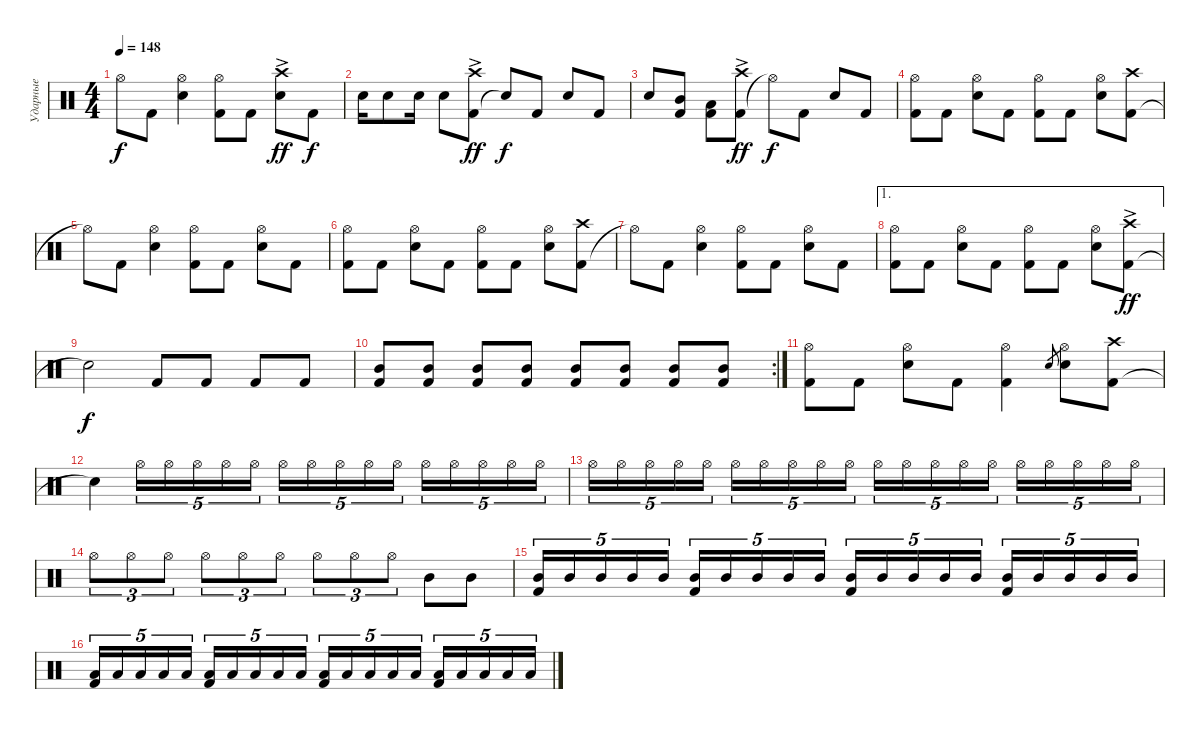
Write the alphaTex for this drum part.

\track ("Ударные" "Ударные") {instrument percussion}
\staff {score}
\articulation defaults
\ts (4 4)
\tempo 148
\clef neutral
\ks c "Hi-Hat (open)"{t}.8{dy f} "Kick (hit) 2".8
("Snare (hit) 2" "Hi-Hat (open)").4 ("Kick (hit) 2" "Hi-Hat (open)").8 "Kick (hit) 2".8 ("Snare (hit) 2" "Crash high (hit)"{ac}).8{dy ff} "Kick (hit) 2".8{dy f} |
"Snare (hit) 2".16 "Electric Snare (hit)".8 "Snare (hit) 2".16 "Electric Snare (hit)".8 ("Kick (hit) 2" "Crash high (hit)"{ac}).8{dy ff} "Snare (hit)"{t}.8{dy f} "Kick (hit) 2".8 "Snare (hit) 2".8 "Kick (hit) 2".8 |
"Snare (hit) 2".8 ("Kick (hit) 2" "Mid Tom (hit)").8 ("Kick (hit) 2" "Low Tom (hit)").8 ("Kick (hit) 2" "Crash high (hit)"{ac}).8{dy ff} "Hi-Hat (open)"{t}.8{dy f} "Kick (hit) 2".8 "Snare (hit) 2".8 "Kick (hit) 2".8 |
("Kick (hit) 2" "Hi-Hat (open)").8 "Kick (hit) 2".8 ("Snare (hit) 2" "Hi-Hat (open)").8 "Kick (hit) 2".8 ("Kick (hit) 2" "Hi-Hat (open)").8 "Kick (hit) 2".8 ("Snare (hit) 2" "Hi-Hat (open)").8 ("Kick (hit) 2" "Crash high (hit)").8 |
"Hi-Hat (open)"{t}.8 "Kick (hit) 2".8 ("Snare (hit) 2" "Hi-Hat (open)").4 ("Kick (hit) 2" "Hi-Hat (open)").8 "Kick (hit) 2".8 ("Snare (hit) 2" "Hi-Hat (open)").8 "Kick (hit) 2".8 |
("Kick (hit) 2" "Hi-Hat (open)").8 "Kick (hit) 2".8 ("Snare (hit) 2" "Hi-Hat (open)").8 "Kick (hit) 2".8 ("Kick (hit) 2" "Hi-Hat (open)").8 "Kick (hit) 2".8 ("Snare (hit) 2" "Hi-Hat (open)").8 ("Kick (hit) 2" "Crash high (hit)").8 |
"Hi-Hat (open)"{t}.8 "Kick (hit) 2".8 ("Snare (hit) 2" "Hi-Hat (open)").4 ("Kick (hit) 2" "Hi-Hat (open)").8 "Kick (hit) 2".8 ("Snare (hit) 2" "Hi-Hat (open)").8 "Kick (hit) 2".8 |
\ae 1
("Kick (hit) 2" "Hi-Hat (open)").8 "Kick (hit) 2".8 ("Snare (hit) 2" "Hi-Hat (open)").8 "Kick (hit) 2".8 ("Kick (hit) 2" "Hi-Hat (open)").8 "Kick (hit) 2".8 ("Snare (hit) 2" "Hi-Hat (open)").8 ("Kick (hit) 2" "Crash high (hit)"{ac}).8{dy ff} |
"Snare (hit)"{t}.2{dy f} "Kick (hit) 2".8 "Kick (hit) 2".8 "Kick (hit) 2".8 "Kick (hit) 2".8 |
\rc 2
("Kick (hit) 2" "Mid Tom (hit)").8 ("Kick (hit) 2" "Mid Tom (hit)").8 ("Kick (hit) 2" "Mid Tom (hit)").8 ("Kick (hit) 2" "Mid Tom (hit)").8 ("Kick (hit) 2" "Mid Tom (hit)").8 ("Kick (hit) 2" "Mid Tom (hit)").8 ("Kick (hit) 2" "Mid Tom (hit)").8 ("Kick (hit) 2" "Mid Tom (hit)").8 |
("Kick (hit) 2" "Hi-Hat (open)").8 "Kick (hit) 2".8 ("Snare (hit) 2" "Hi-Hat (open)").8 "Kick (hit) 2".8 ("Kick (hit) 2" "Hi-Hat (open)").4 "Snare (hit) 2".8{gr} ("Snare (hit) 2" "Hi-Hat (open)").8 ("Kick (hit) 2" "Crash high (hit)").8 |
"Snare (hit)"{t}.4 "Hi-Hat (open)".16{tu (5 4)} "Hi-Hat (open)".16{tu (5 4)} "Hi-Hat (open)".16{tu (5 4)} "Hi-Hat (open)".16{tu (5 4)} "Hi-Hat (open)".16{tu (5 4)} "Hi-Hat (open)".16{tu (5 4)} "Hi-Hat (open)".16{tu (5 4)} "Hi-Hat (open)".16{tu (5 4)} "Hi-Hat (open)".16{tu (5 4)} "Hi-Hat (open)".16{tu (5 4)} "Hi-Hat (open)".16{tu (5 4)} "Hi-Hat (open)".16{tu (5 4)} "Hi-Hat (open)".16{tu (5 4)} "Hi-Hat (open)".16{tu (5 4)} "Hi-Hat (open)".16{tu (5 4)} |
"Hi-Hat (open)".16{tu (5 4)} "Hi-Hat (open)".16{tu (5 4)} "Hi-Hat (open)".16{tu (5 4)} "Hi-Hat (open)".16{tu (5 4)} "Hi-Hat (open)".16{tu (5 4)} "Hi-Hat (open)".16{tu (5 4)} "Hi-Hat (open)".16{tu (5 4)} "Hi-Hat (open)".16{tu (5 4)} "Hi-Hat (open)".16{tu (5 4)} "Hi-Hat (open)".16{tu (5 4)} "Hi-Hat (open)".16{tu (5 4)} "Hi-Hat (open)".16{tu (5 4)} "Hi-Hat (open)".16{tu (5 4)} "Hi-Hat (open)".16{tu (5 4)} "Hi-Hat (open)".16{tu (5 4)} "Hi-Hat (open)".16{tu (5 4)} "Hi-Hat (open)".16{tu (5 4)} "Hi-Hat (open)".16{tu (5 4)} "Hi-Hat (open)".16{tu (5 4)} "Hi-Hat (open)".16{tu (5 4)} |
"Hi-Hat (open)".8{tu (3 2)} "Hi-Hat (open)".8{tu (3 2)} "Hi-Hat (open)".8{tu (3 2)} "Hi-Hat (open)".8{tu (3 2)} "Hi-Hat (open)".8{tu (3 2)} "Hi-Hat (open)".8{tu (3 2)} "Hi-Hat (open)".8{tu (3 2)} "Hi-Hat (open)".8{tu (3 2)} "Hi-Hat (open)".8{tu (3 2)} "Mid Tom (hit)".8 "Mid Tom (hit)".8 |
("Mid Tom (hit)" "Kick (hit) 2").16{tu (5 4)} "Mid Tom (hit)".16{tu (5 4)} "Mid Tom (hit)".16{tu (5 4)} "Mid Tom (hit)".16{tu (5 4)} "Mid Tom (hit)".16{tu (5 4)} ("Mid Tom (hit)" "Kick (hit) 2").16{tu (5 4)} "Mid Tom (hit)".16{tu (5 4)} "Mid Tom (hit)".16{tu (5 4)} "Mid Tom (hit)".16{tu (5 4)} "Mid Tom (hit)".16{tu (5 4)} ("Mid Tom (hit)" "Kick (hit) 2").16{tu (5 4)} "Mid Tom (hit)".16{tu (5 4)} "Mid Tom (hit)".16{tu (5 4)} "Mid Tom (hit)".16{tu (5 4)} "Mid Tom (hit)".16{tu (5 4)} ("Mid Tom (hit)" "Kick (hit) 2").16{tu (5 4)} "Mid Tom (hit)".16{tu (5 4)} "Mid Tom (hit)".16{tu (5 4)} "Mid Tom (hit)".16{tu (5 4)} "Mid Tom (hit)".16{tu (5 4)} |
("Low Tom (hit)" "Kick (hit) 2").16{tu (5 4)} "Low Tom (hit)".16{tu (5 4)} "Low Tom (hit)".16{tu (5 4)} "Low Tom (hit)".16{tu (5 4)} "Low Tom (hit)".16{tu (5 4)} ("Low Tom (hit)" "Kick (hit) 2").16{tu (5 4)} "Low Tom (hit)".16{tu (5 4)} "Low Tom (hit)".16{tu (5 4)} "Low Tom (hit)".16{tu (5 4)} "Low Tom (hit)".16{tu (5 4)} ("Low Tom (hit)" "Kick (hit) 2").16{tu (5 4)} "Low Tom (hit)".16{tu (5 4)} "Low Tom (hit)".16{tu (5 4)} "Low Tom (hit)".16{tu (5 4)} "Low Tom (hit)".16{tu (5 4)} ("Low Tom (hit)" "Kick (hit) 2").16{tu (5 4)} "Low Tom (hit)".16{tu (5 4)} "Low Tom (hit)".16{tu (5 4)} "Low Tom (hit)".16{tu (5 4)} "Low Tom (hit)".16{tu (5 4)}
